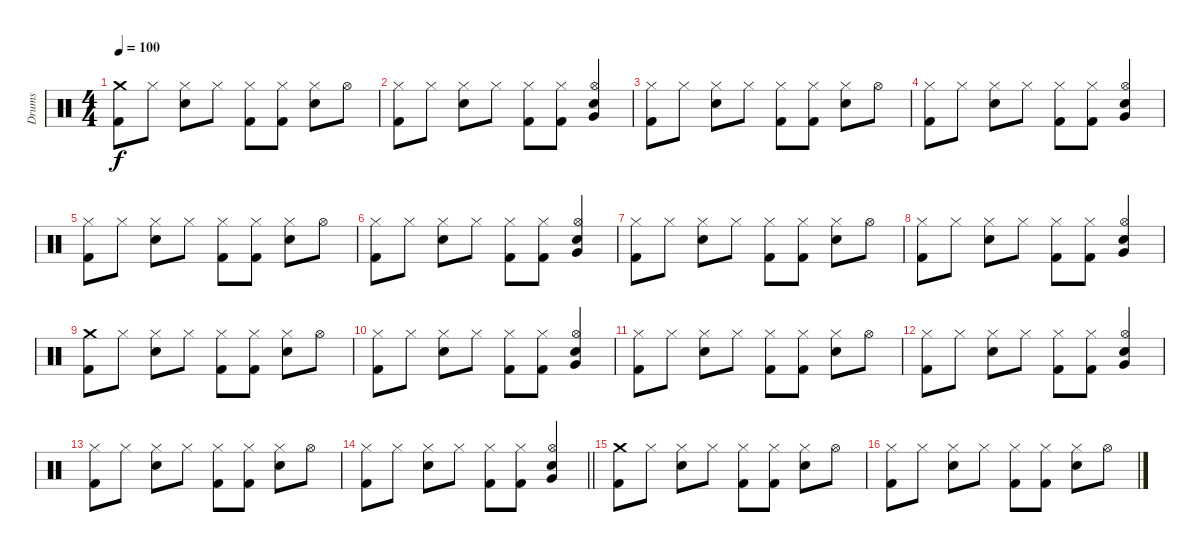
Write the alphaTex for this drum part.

\track ("Drums" "Drums") {instrument percussion}
\staff {score}
\articulation defaults
\ts (4 4)
\tempo 100
\clef neutral
\ks c
("Crash medium (hit)" "Kick (hit) 2").8{dy f} "Hi-Hat (closed)".8 ("Hi-Hat (closed)" "Snare (hit) 2").8 "Hi-Hat (closed)".8 ("Hi-Hat (closed)" "Kick (hit) 2").8 ("Hi-Hat (closed)" "Kick (hit) 2").8 ("Hi-Hat (closed)" "Snare (hit) 2").8 "Hi-Hat (open)".8 |
("Hi-Hat (closed)" "Kick (hit) 2").8 "Hi-Hat (closed)".8 ("Hi-Hat (closed)" "Snare (hit) 2").8 "Hi-Hat (closed)".8 ("Hi-Hat (closed)" "Kick (hit) 2").8 ("Hi-Hat (closed)" "Kick (hit) 2").8 ("Hi-Hat (open)" "Snare (hit) 2" "Very Low Tom (hit)").4 |
("Hi-Hat (closed)" "Kick (hit) 2").8 "Hi-Hat (closed)".8 ("Hi-Hat (closed)" "Snare (hit) 2").8 "Hi-Hat (closed)".8 ("Hi-Hat (closed)" "Kick (hit) 2").8 ("Hi-Hat (closed)" "Kick (hit) 2").8 ("Hi-Hat (closed)" "Snare (hit) 2").8 "Hi-Hat (open)".8 |
("Hi-Hat (closed)" "Kick (hit) 2").8 "Hi-Hat (closed)".8 ("Hi-Hat (closed)" "Snare (hit) 2").8 "Hi-Hat (closed)".8 ("Hi-Hat (closed)" "Kick (hit) 2").8 ("Hi-Hat (closed)" "Kick (hit) 2").8 ("Hi-Hat (open)" "Snare (hit) 2" "Very Low Tom (hit)").4 |
("Hi-Hat (closed)" "Kick (hit) 2").8 "Hi-Hat (closed)".8 ("Hi-Hat (closed)" "Snare (hit) 2").8 "Hi-Hat (closed)".8 ("Hi-Hat (closed)" "Kick (hit) 2").8 ("Hi-Hat (closed)" "Kick (hit) 2").8 ("Hi-Hat (closed)" "Snare (hit) 2").8 "Hi-Hat (open)".8 |
("Hi-Hat (closed)" "Kick (hit) 2").8 "Hi-Hat (closed)".8 ("Hi-Hat (closed)" "Snare (hit) 2").8 "Hi-Hat (closed)".8 ("Hi-Hat (closed)" "Kick (hit) 2").8 ("Hi-Hat (closed)" "Kick (hit) 2").8 ("Hi-Hat (open)" "Snare (hit) 2" "Very Low Tom (hit)").4 |
("Hi-Hat (closed)" "Kick (hit) 2").8 "Hi-Hat (closed)".8 ("Hi-Hat (closed)" "Snare (hit) 2").8 "Hi-Hat (closed)".8 ("Hi-Hat (closed)" "Kick (hit) 2").8 ("Hi-Hat (closed)" "Kick (hit) 2").8 ("Hi-Hat (closed)" "Snare (hit) 2").8 "Hi-Hat (open)".8 |
("Hi-Hat (closed)" "Kick (hit) 2").8 "Hi-Hat (closed)".8 ("Hi-Hat (closed)" "Snare (hit) 2").8 "Hi-Hat (closed)".8 ("Hi-Hat (closed)" "Kick (hit) 2").8 ("Hi-Hat (closed)" "Kick (hit) 2").8 ("Hi-Hat (open)" "Snare (hit) 2" "Very Low Tom (hit)").4 |
("Crash medium (hit)" "Kick (hit) 2").8 "Hi-Hat (closed)".8 ("Hi-Hat (closed)" "Snare (hit) 2").8 "Hi-Hat (closed)".8 ("Hi-Hat (closed)" "Kick (hit) 2").8 ("Hi-Hat (closed)" "Kick (hit) 2").8 ("Hi-Hat (closed)" "Snare (hit) 2").8 "Hi-Hat (open)".8 |
("Hi-Hat (closed)" "Kick (hit) 2").8 "Hi-Hat (closed)".8 ("Hi-Hat (closed)" "Snare (hit) 2").8 "Hi-Hat (closed)".8 ("Hi-Hat (closed)" "Kick (hit) 2").8 ("Hi-Hat (closed)" "Kick (hit) 2").8 ("Hi-Hat (open)" "Snare (hit) 2" "Very Low Tom (hit)").4 |
("Hi-Hat (closed)" "Kick (hit) 2").8 "Hi-Hat (closed)".8 ("Hi-Hat (closed)" "Snare (hit) 2").8 "Hi-Hat (closed)".8 ("Hi-Hat (closed)" "Kick (hit) 2").8 ("Hi-Hat (closed)" "Kick (hit) 2").8 ("Hi-Hat (closed)" "Snare (hit) 2").8 "Hi-Hat (open)".8 |
("Hi-Hat (closed)" "Kick (hit) 2").8 "Hi-Hat (closed)".8 ("Hi-Hat (closed)" "Snare (hit) 2").8 "Hi-Hat (closed)".8 ("Hi-Hat (closed)" "Kick (hit) 2").8 ("Hi-Hat (closed)" "Kick (hit) 2").8 ("Hi-Hat (open)" "Snare (hit) 2" "Very Low Tom (hit)").4 |
("Hi-Hat (closed)" "Kick (hit) 2").8 "Hi-Hat (closed)".8 ("Hi-Hat (closed)" "Snare (hit) 2").8 "Hi-Hat (closed)".8 ("Hi-Hat (closed)" "Kick (hit) 2").8 ("Hi-Hat (closed)" "Kick (hit) 2").8 ("Hi-Hat (closed)" "Snare (hit) 2").8 "Hi-Hat (open)".8 |
\barLineRight lightlight
("Hi-Hat (closed)" "Kick (hit) 2").8 "Hi-Hat (closed)".8 ("Hi-Hat (closed)" "Snare (hit) 2").8 "Hi-Hat (closed)".8 ("Hi-Hat (closed)" "Kick (hit) 2").8 ("Hi-Hat (closed)" "Kick (hit) 2").8 ("Hi-Hat (open)" "Snare (hit) 2" "Very Low Tom (hit)").4 |
\section ("" "")
("Crash medium (hit)" "Kick (hit) 2").8 "Hi-Hat (closed)".8 ("Hi-Hat (closed)" "Snare (hit) 2").8 "Hi-Hat (closed)".8 ("Hi-Hat (closed)" "Kick (hit) 2").8 ("Hi-Hat (closed)" "Kick (hit) 2").8 ("Hi-Hat (closed)" "Snare (hit) 2").8 "Hi-Hat (open)".8 |
("Hi-Hat (closed)" "Kick (hit) 2").8 "Hi-Hat (closed)".8 ("Hi-Hat (closed)" "Snare (hit) 2").8 "Hi-Hat (closed)".8 ("Hi-Hat (closed)" "Kick (hit) 2").8 ("Hi-Hat (closed)" "Kick (hit) 2").8 ("Hi-Hat (closed)" "Snare (hit) 2").8 "Hi-Hat (open)".8
